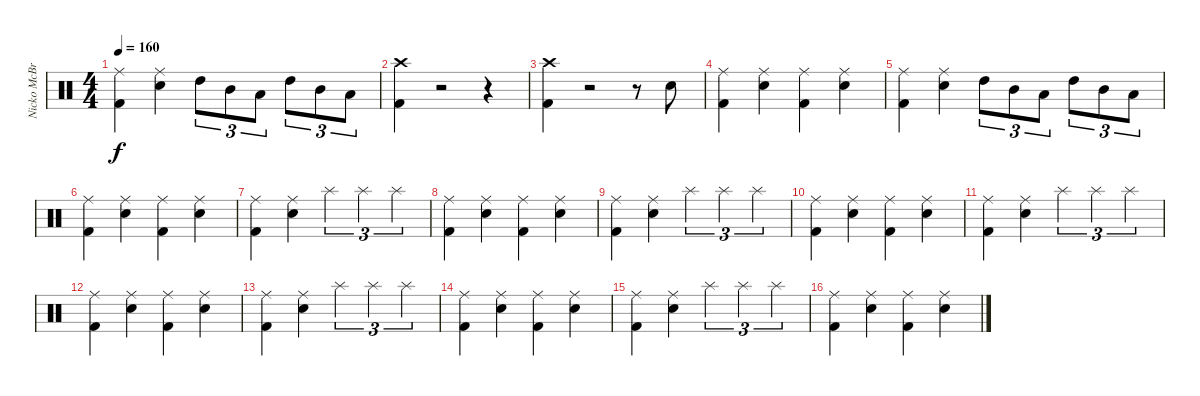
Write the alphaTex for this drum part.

\track ("Nicko McBrain" "Nicko McBr") {instrument percussion}
\staff {score}
\articulation defaults
\ts (4 4)
\tempo 160
\clef neutral
\ks c
("Ride (middle)" "Kick (hit) 2").4{dy f} ("Ride (middle)" "Snare (hit) 2").4 "High Tom (hit)".8{tu (3 2)} "Mid Tom (hit)".8{tu (3 2)} "Low Tom (hit)".8{tu (3 2)} "High Tom (hit)".8{tu (3 2)} "Mid Tom (hit)".8{tu (3 2)} "Low Tom (hit)".8{tu (3 2)} |
("Kick (hit) 2" "Crash high (hit)").4 r.2 r.4 |
("Kick (hit) 2" "Crash high (hit)").4 r.2 r.8 "Snare (hit) 2".8 |
("Ride (middle)" "Kick (hit) 2").4 ("Ride (middle)" "Snare (hit) 2").4 ("Ride (middle)" "Kick (hit) 2").4 ("Ride (middle)" "Snare (hit) 2").4 |
("Ride (middle)" "Kick (hit) 2").4 ("Ride (middle)" "Snare (hit) 2").4 "High Tom (hit)".8{tu (3 2)} "Mid Tom (hit)".8{tu (3 2)} "Low Tom (hit)".8{tu (3 2)} "High Tom (hit)".8{tu (3 2)} "Mid Tom (hit)".8{tu (3 2)} "Low Tom (hit)".8{tu (3 2)} |
("Ride (middle)" "Kick (hit) 2").4 ("Ride (middle)" "Snare (hit) 2").4 ("Ride (middle)" "Kick (hit) 2").4 ("Ride (middle)" "Snare (hit) 2").4 |
("Ride (middle)" "Kick (hit) 2").4 ("Ride (middle)" "Snare (hit) 2").4 "Splash (hit)".4{tu (3 2)} "Splash (hit)".4{tu (3 2)} "Splash (hit)".4{tu (3 2)} |
("Ride (middle)" "Kick (hit) 2").4 ("Ride (middle)" "Snare (hit) 2").4 ("Ride (middle)" "Kick (hit) 2").4 ("Ride (middle)" "Snare (hit) 2").4 |
("Ride (middle)" "Kick (hit) 2").4 ("Ride (middle)" "Snare (hit) 2").4 "Splash (hit)".4{tu (3 2)} "Splash (hit)".4{tu (3 2)} "Splash (hit)".4{tu (3 2)} |
("Ride (middle)" "Kick (hit) 2").4 ("Ride (middle)" "Snare (hit) 2").4 ("Ride (middle)" "Kick (hit) 2").4 ("Ride (middle)" "Snare (hit) 2").4 |
("Ride (middle)" "Kick (hit) 2").4 ("Ride (middle)" "Snare (hit) 2").4 "Splash (hit)".4{tu (3 2)} "Splash (hit)".4{tu (3 2)} "Splash (hit)".4{tu (3 2)} |
("Ride (middle)" "Kick (hit) 2").4 ("Ride (middle)" "Snare (hit) 2").4 ("Ride (middle)" "Kick (hit) 2").4 ("Ride (middle)" "Snare (hit) 2").4 |
("Ride (middle)" "Kick (hit) 2").4 ("Ride (middle)" "Snare (hit) 2").4 "Splash (hit)".4{tu (3 2)} "Splash (hit)".4{tu (3 2)} "Splash (hit)".4{tu (3 2)} |
("Ride (middle)" "Kick (hit) 2").4 ("Ride (middle)" "Snare (hit) 2").4 ("Ride (middle)" "Kick (hit) 2").4 ("Ride (middle)" "Snare (hit) 2").4 |
("Ride (middle)" "Kick (hit) 2").4 ("Ride (middle)" "Snare (hit) 2").4 "Splash (hit)".4{tu (3 2)} "Splash (hit)".4{tu (3 2)} "Splash (hit)".4{tu (3 2)} |
("Ride (middle)" "Kick (hit) 2").4 ("Ride (middle)" "Snare (hit) 2").4 ("Ride (middle)" "Kick (hit) 2").4 ("Ride (middle)" "Snare (hit) 2").4
